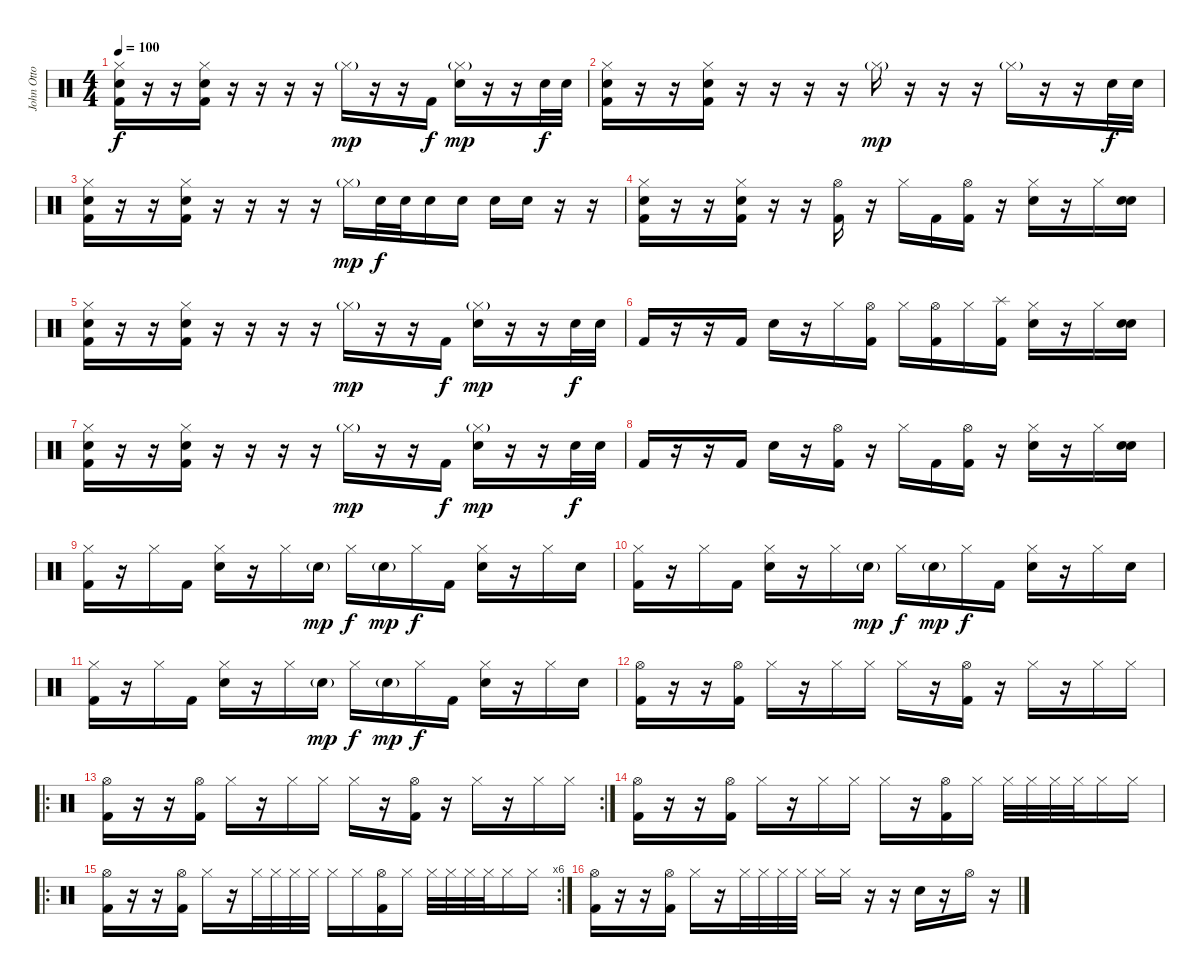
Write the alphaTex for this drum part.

\track ("John Otto" "John Otto") {instrument percussion}
\staff {score}
\articulation defaults
\ts (4 4)
\tempo 100
\clef neutral
\ks c
("Hi-Hat (closed)" "Snare (hit) 2" "Kick (hit) 2").16{dy f} r.16 r.16 ("Hi-Hat (closed)" "Snare (hit) 2" "Kick (hit) 2").16 r.16 r.16 r.16 r.16 "Hi-Hat (closed)"{g}.16{dy mp} r.16 r.16 "Kick (hit) 2".16{dy f} ("Hi-Hat (closed)"{g} "Snare (hit) 2").16{dy mp} r.16 r.16 "Snare (hit) 2".32{dy f} "Snare (hit) 2".32 |
("Hi-Hat (closed)" "Snare (hit) 2" "Kick (hit) 2").16 r.16 r.16 ("Hi-Hat (closed)" "Snare (hit) 2" "Kick (hit) 2").16 r.16 r.16 r.16 r.16 "Hi-Hat (closed)"{g}.16{dy mp} r.16 r.16 r.16 "Hi-Hat (closed)"{g}.16 r.16 r.16 "Snare (hit) 2".32{dy f} "Snare (hit) 2".32 |
("Hi-Hat (closed)" "Snare (hit) 2" "Kick (hit) 2").16 r.16 r.16 ("Hi-Hat (closed)" "Snare (hit) 2" "Kick (hit) 2").16 r.16 r.16 r.16 r.16 "Hi-Hat (closed)"{g}.16{dy mp} "Snare (hit) 2".32{dy f} "Snare (hit) 2".32 "Snare (hit) 2".16 "Snare (hit) 2".16 "Snare (hit) 2".16 "Snare (hit) 2".16 r.16 r.16 |
("Hi-Hat (closed)" "Snare (hit) 2" "Kick (hit) 2").16 r.16 r.16 ("Hi-Hat (closed)" "Snare (hit) 2" "Kick (hit) 2").16 r.16 r.16 ("Hi-Hat (open)" "Kick (hit) 2").16 r.16 "Hi-Hat (closed)".16 "Kick (hit) 2".16 ("Hi-Hat (open)" "Kick (hit) 2").16 r.16 ("Hi-Hat (closed)" "Snare (hit) 2").16 r.16 "Hi-Hat (closed)".16 ("Snare (hit) 2" "Snare (hit) 2").16 |
("Hi-Hat (closed)" "Snare (hit) 2" "Kick (hit) 2").16 r.16 r.16 ("Hi-Hat (closed)" "Snare (hit) 2" "Kick (hit) 2").16 r.16 r.16 r.16 r.16 "Hi-Hat (closed)"{g}.16{dy mp} r.16 r.16 "Kick (hit) 2".16{dy f} ("Hi-Hat (closed)"{g} "Snare (hit) 2").16{dy mp} r.16 r.16 "Snare (hit) 2".32{dy f} "Snare (hit) 2".32 |
"Kick (hit) 2".16 r.16 r.16 "Kick (hit) 2".16 "Snare (hit) 2".16 r.16 "Hi-Hat (closed)".16 ("Hi-Hat (open)" "Kick (hit) 2").16 "Hi-Hat (closed)".16 ("Hi-Hat (open)" "Kick (hit) 2").16 "Hi-Hat (closed)".16 ("Splash (hit)" "Kick (hit) 2").16 ("Hi-Hat (closed)" "Snare (hit) 2").16 r.16 "Hi-Hat (closed)".16 ("Snare (hit) 2" "Snare (hit) 2").16 |
("Hi-Hat (closed)" "Snare (hit) 2" "Kick (hit) 2").16 r.16 r.16 ("Hi-Hat (closed)" "Snare (hit) 2" "Kick (hit) 2").16 r.16 r.16 r.16 r.16 "Hi-Hat (closed)"{g}.16{dy mp} r.16 r.16 "Kick (hit) 2".16{dy f} ("Hi-Hat (closed)"{g} "Snare (hit) 2").16{dy mp} r.16 r.16 "Snare (hit) 2".32{dy f} "Snare (hit) 2".32 |
"Kick (hit) 2".16 r.16 r.16 "Kick (hit) 2".16 "Snare (hit) 2".16 r.16 ("Hi-Hat (open)" "Kick (hit) 2").16 r.16 "Hi-Hat (closed)".16 "Kick (hit) 2".16 ("Hi-Hat (open)" "Kick (hit) 2").16 r.16 ("Hi-Hat (closed)" "Snare (hit) 2").16 r.16 "Hi-Hat (closed)".16 ("Snare (hit) 2" "Snare (hit) 2").16 |
("Hi-Hat (closed)" "Kick (hit) 2").16 r.16 "Hi-Hat (closed)".16 "Kick (hit) 2".16 ("Hi-Hat (closed)" "Snare (hit) 2").16 r.16 "Hi-Hat (closed)".16 "Snare (hit) 2"{g}.16{dy mp} "Hi-Hat (closed)".16{dy f} "Snare (hit) 2"{g}.16{dy mp} "Hi-Hat (closed)".16{dy f} "Kick (hit) 2".16 ("Hi-Hat (closed)" "Snare (hit) 2").16 r.16 "Hi-Hat (closed)".16 "Snare (hit) 2".16 |
("Hi-Hat (closed)" "Kick (hit) 2").16 r.16 "Hi-Hat (closed)".16 "Kick (hit) 2".16 ("Hi-Hat (closed)" "Snare (hit) 2").16 r.16 "Hi-Hat (closed)".16 "Snare (hit) 2"{g}.16{dy mp} "Hi-Hat (closed)".16{dy f} "Snare (hit) 2"{g}.16{dy mp} "Hi-Hat (closed)".16{dy f} "Kick (hit) 2".16 ("Hi-Hat (closed)" "Snare (hit) 2").16 r.16 "Hi-Hat (closed)".16 "Snare (hit) 2".16 |
("Hi-Hat (closed)" "Kick (hit) 2").16 r.16 "Hi-Hat (closed)".16 "Kick (hit) 2".16 ("Hi-Hat (closed)" "Snare (hit) 2").16 r.16 "Hi-Hat (closed)".16 "Snare (hit) 2"{g}.16{dy mp} "Hi-Hat (closed)".16{dy f} "Snare (hit) 2"{g}.16{dy mp} "Hi-Hat (closed)".16{dy f} "Kick (hit) 2".16 ("Hi-Hat (closed)" "Snare (hit) 2").16 r.16 "Hi-Hat (closed)".16 "Snare (hit) 2".16 |
("Hi-Hat (open)" "Kick (hit) 2").16 r.16 r.16 ("Hi-Hat (open)" "Kick (hit) 2").16 "Hi-Hat (closed)".16 r.16 "Hi-Hat (closed)".16 "Hi-Hat (closed)".16 "Hi-Hat (closed)".16 r.16 ("Hi-Hat (open)" "Kick (hit) 2").16 r.16 "Hi-Hat (closed)".16 r.16 "Hi-Hat (closed)".16 "Hi-Hat (closed)".16 |
\ro
\rc 2
("Hi-Hat (open)" "Kick (hit) 2").16 r.16 r.16 ("Hi-Hat (open)" "Kick (hit) 2").16 "Hi-Hat (closed)".16 r.16 "Hi-Hat (closed)".16 "Hi-Hat (closed)".16 "Hi-Hat (closed)".16 r.16 ("Hi-Hat (open)" "Kick (hit) 2").16 r.16 "Hi-Hat (closed)".16 r.16 "Hi-Hat (closed)".16 "Hi-Hat (closed)".16 |
("Hi-Hat (open)" "Kick (hit) 2").16 r.16 r.16 ("Hi-Hat (open)" "Kick (hit) 2").16 "Hi-Hat (closed)".16 r.16 "Hi-Hat (closed)".16 "Hi-Hat (closed)".16 "Hi-Hat (closed)".16 r.16 ("Hi-Hat (open)" "Kick (hit) 2").16 "Hi-Hat (closed)".16 "Hi-Hat (closed)".32 "Hi-Hat (closed)".32 "Hi-Hat (closed)".32 "Hi-Hat (closed)".32 "Hi-Hat (closed)".16 "Hi-Hat (closed)".16 |
\ro
\rc 6
("Hi-Hat (open)" "Kick (hit) 2").16 r.16 r.16 ("Hi-Hat (open)" "Kick (hit) 2").16 "Hi-Hat (closed)".16 r.16 "Hi-Hat (closed)".32 "Hi-Hat (closed)".32 "Hi-Hat (closed)".32 "Hi-Hat (closed)".32 "Hi-Hat (closed)".16 "Hi-Hat (closed)".16 ("Hi-Hat (open)" "Kick (hit) 2").16 "Hi-Hat (closed)".16 "Hi-Hat (closed)".32 "Hi-Hat (closed)".32 "Hi-Hat (closed)".32 "Hi-Hat (closed)".32 "Hi-Hat (closed)".16 "Hi-Hat (closed)".16 |
("Hi-Hat (open)" "Kick (hit) 2").16 r.16 r.16 ("Hi-Hat (open)" "Kick (hit) 2").16 "Hi-Hat (closed)".16 r.16 "Hi-Hat (closed)".32 "Hi-Hat (closed)".32 "Hi-Hat (closed)".32 "Hi-Hat (closed)".32 "Hi-Hat (closed)".16 "Hi-Hat (closed)".16 r.16 r.16 "Snare (hit) 2".16 r.16 "Hi-Hat (open)".16 r.16
